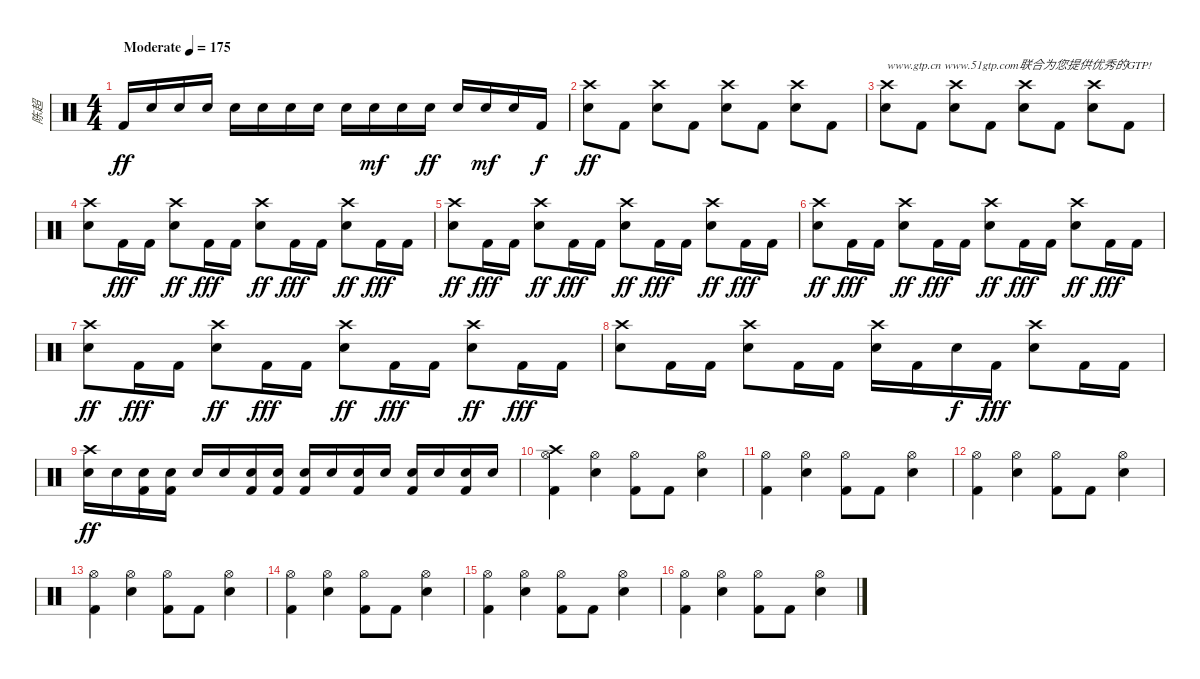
\track ("陈超" "陈超") {instrument percussion}
\staff {score}
\articulation defaults
\ts (4 4)
\tempo (175 "Moderate")
\clef neutral
\ks c "Kick (hit) 2".16{dy ff} "Electric Snare (hit)".16 "Electric Snare (hit)".16 "Electric Snare (hit)".16 "Snare (hit) 2".16 "Electric Snare (hit)".16 "Electric Snare (hit)".16 "Electric Snare (hit)".16 "Snare (hit) 2".16 "Electric Snare (hit)".16{dy mf} "Electric Snare (hit)".16 "Electric Snare (hit)".16{dy ff} "Electric Snare (hit)".16 "Electric Snare (hit)".16{dy mf} "Electric Snare (hit)".16 "Kick (hit) 2".16{dy f}
|
("Crash high (hit)" "Electric Snare (hit)").8{dy ff} "Kick (hit) 2".8 ("Crash high (hit)" "Electric Snare (hit)").8 "Kick (hit) 2".8 ("Crash high (hit)" "Electric Snare (hit)").8 "Kick (hit) 2".8 ("Crash high (hit)" "Electric Snare (hit)").8 "Kick (hit) 2".8 |
("Crash high (hit)" "Electric Snare (hit)").8{txt "www.gtp.cn www.51gtp.com联合为您提供优秀的GTP!"} "Kick (hit) 2".8 ("Crash high (hit)" "Electric Snare (hit)").8 "Kick (hit) 2".8 ("Crash high (hit)" "Electric Snare (hit)").8 "Kick (hit) 2".8 ("Crash high (hit)" "Electric Snare (hit)").8 "Kick (hit) 2".8 |
("Crash high (hit)" "Electric Snare (hit)").8 "Kick (hit) 2".16{dy fff} "Kick (hit) 2".16 ("Crash high (hit)" "Electric Snare (hit)").8{dy ff} "Kick (hit) 2".16{dy fff} "Kick (hit) 2".16 ("Crash high (hit)" "Electric Snare (hit)").8{dy ff} "Kick (hit) 2".16{dy fff} "Kick (hit) 2".16 ("Crash high (hit)" "Electric Snare (hit)").8{dy ff} "Kick (hit) 2".16{dy fff} "Kick (hit) 2".16 |
("Crash high (hit)" "Electric Snare (hit)").8{dy ff} "Kick (hit) 2".16{dy fff} "Kick (hit) 2".16 ("Crash high (hit)" "Electric Snare (hit)").8{dy ff} "Kick (hit) 2".16{dy fff} "Kick (hit) 2".16 ("Crash high (hit)" "Electric Snare (hit)").8{dy ff} "Kick (hit) 2".16{dy fff} "Kick (hit) 2".16 ("Crash high (hit)" "Electric Snare (hit)").8{dy ff} "Kick (hit) 2".16{dy fff} "Kick (hit) 2".16 |
("Crash high (hit)" "Electric Snare (hit)").8{dy ff} "Kick (hit) 2".16{dy fff} "Kick (hit) 2".16 ("Crash high (hit)" "Electric Snare (hit)").8{dy ff} "Kick (hit) 2".16{dy fff} "Kick (hit) 2".16 ("Crash high (hit)" "Electric Snare (hit)").8{dy ff} "Kick (hit) 2".16{dy fff} "Kick (hit) 2".16 ("Crash high (hit)" "Electric Snare (hit)").8{dy ff} "Kick (hit) 2".16{dy fff} "Kick (hit) 2".16 |
("Crash high (hit)" "Electric Snare (hit)").8{dy ff} "Kick (hit) 2".16{dy fff} "Kick (hit) 2".16 ("Crash high (hit)" "Electric Snare (hit)").8{dy ff} "Kick (hit) 2".16{dy fff} "Kick (hit) 2".16 ("Crash high (hit)" "Electric Snare (hit)").8{dy ff} "Kick (hit) 2".16{dy fff} "Kick (hit) 2".16 ("Crash high (hit)" "Electric Snare (hit)").8{dy ff} "Kick (hit) 2".16{dy fff} "Kick (hit) 2".16 |
("Crash high (hit)" "Electric Snare (hit)").8 "Kick (hit) 2".16 "Kick (hit) 2".16 ("Crash high (hit)" "Snare (hit) 2").8 "Kick (hit) 2".16 "Kick (hit) 2".16 ("Crash high (hit)" "Snare (hit) 2").16 "Kick (hit) 2".16 "Snare (hit) 2".16{dy f} "Kick (hit) 2".16{dy fff} ("Crash high (hit)" "Snare (hit) 2").8 "Kick (hit) 2".16 "Kick (hit) 2".16 |
("Crash high (hit)" "Electric Snare (hit)").16{dy ff} "Electric Snare (hit)".16 ("Electric Snare (hit)" "Kick (hit) 2").16 ("Electric Snare (hit)" "Kick (hit) 2").16 "Electric Snare (hit)".16 "Electric Snare (hit)".16 ("Electric Snare (hit)" "Kick (hit) 2").16 ("Electric Snare (hit)" "Kick (hit) 2").16 ("Snare (hit) 2" "Kick (hit) 2").16 "Snare (hit) 2".16 ("Snare (hit) 2" "Kick (hit) 2").16 "Snare (hit) 2".16 ("Snare (hit) 2" "Kick (hit) 2").16 "Snare (hit) 2".16 ("Snare (hit) 2" "Kick (hit) 2").16 "Snare (hit) 2".16 |
("Crash high (hit)" "Hi-Hat (open)" "Kick (hit) 2").4 ("Hi-Hat (open)" "Electric Snare (hit)").4 ("Hi-Hat (open)" "Kick (hit) 2").8 "Kick (hit) 2".8 ("Hi-Hat (open)" "Electric Snare (hit)").4 |
("Hi-Hat (open)" "Kick (hit) 2").4 ("Hi-Hat (open)" "Electric Snare (hit)").4 ("Hi-Hat (open)" "Kick (hit) 2").8 "Kick (hit) 2".8 ("Hi-Hat (open)" "Electric Snare (hit)").4 |
("Hi-Hat (open)" "Kick (hit) 2").4 ("Hi-Hat (open)" "Electric Snare (hit)").4 ("Hi-Hat (open)" "Kick (hit) 2").8 "Kick (hit) 2".8 ("Hi-Hat (open)" "Electric Snare (hit)").4 |
("Hi-Hat (open)" "Kick (hit) 2").4 ("Hi-Hat (open)" "Electric Snare (hit)").4 ("Hi-Hat (open)" "Kick (hit) 2").8 "Kick (hit) 2".8 ("Hi-Hat (open)" "Electric Snare (hit)").4 |
("Hi-Hat (open)" "Kick (hit) 2").4 ("Hi-Hat (open)" "Electric Snare (hit)").4 ("Hi-Hat (open)" "Kick (hit) 2").8 "Kick (hit) 2".8 ("Hi-Hat (open)" "Electric Snare (hit)").4 |
("Hi-Hat (open)" "Kick (hit) 2").4 ("Hi-Hat (open)" "Electric Snare (hit)").4 ("Hi-Hat (open)" "Kick (hit) 2").8 "Kick (hit) 2".8 ("Hi-Hat (open)" "Electric Snare (hit)").4 |
("Hi-Hat (open)" "Kick (hit) 2").4 ("Hi-Hat (open)" "Electric Snare (hit)").4 ("Hi-Hat (open)" "Kick (hit) 2").8 "Kick (hit) 2".8 ("Hi-Hat (open)" "Electric Snare (hit)").4
